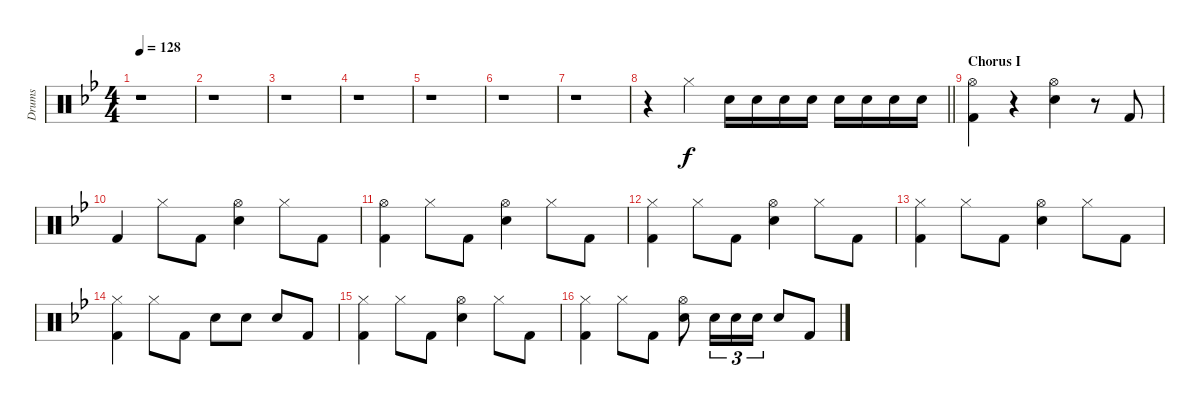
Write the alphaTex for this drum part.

\track ("Drums" "Drums") {instrument percussion}
\staff {score}
\articulation defaults
\ts (4 4)
\tempo 128
\clef neutral
\ks bb
r.1{dy f} |
r.1 |
r.1 |
r.1 |
r.1 |
r.1 |
r.1 |
\barLineRight lightlight
r.4 "Hi-Hat (closed)".4 "Electric Snare (hit)".16 "Electric Snare (hit)".16 "Electric Snare (hit)".16 "Electric Snare (hit)".16 "Electric Snare (hit)".16 "Electric Snare (hit)".16 "Electric Snare (hit)".16 "Electric Snare (hit)".16 |
\section ("" "Chorus I")
("Hi-Hat (open)" "Kick (hit) 2").4 r.4 ("Hi-Hat (open)" "Electric Snare (hit)").4 r.8 "Kick (hit) 2".8 |
"Kick (hit) 2".4 "Hi-Hat (closed)".8 "Kick (hit) 2".8 ("Hi-Hat (open)" "Electric Snare (hit)").4 "Hi-Hat (closed)".8 "Kick (hit) 2".8 |
("Hi-Hat (open)" "Kick (hit) 2").4 "Hi-Hat (closed)".8 "Kick (hit) 2".8 ("Hi-Hat (open)" "Electric Snare (hit)").4 "Hi-Hat (closed)".8 "Kick (hit) 2".8 |
("Hi-Hat (closed)" "Kick (hit) 2").4 "Hi-Hat (closed)".8 "Kick (hit) 2".8 ("Hi-Hat (open)" "Electric Snare (hit)").4 "Hi-Hat (closed)".8 "Kick (hit) 2".8 |
("Hi-Hat (closed)" "Kick (hit) 2").4 "Hi-Hat (closed)".8 "Kick (hit) 2".8 ("Hi-Hat (open)" "Electric Snare (hit)").4 "Hi-Hat (closed)".8 "Kick (hit) 2".8 |
("Hi-Hat (closed)" "Kick (hit) 2").4 "Hi-Hat (closed)".8 "Kick (hit) 2".8 "Electric Snare (hit)".8 "Electric Snare (hit)".8 "Electric Snare (hit)".8 "Kick (hit) 2".8 |
("Hi-Hat (closed)" "Kick (hit) 2").4 "Hi-Hat (closed)".8 "Kick (hit) 2".8 ("Hi-Hat (open)" "Electric Snare (hit)").4 "Hi-Hat (closed)".8 "Kick (hit) 2".8 |
("Hi-Hat (closed)" "Kick (hit) 2").4 "Hi-Hat (closed)".8 "Kick (hit) 2".8 ("Hi-Hat (open)" "Electric Snare (hit)").8 "Electric Snare (hit)".16{tu (3 2)} "Electric Snare (hit)".16{tu (3 2)} "Electric Snare (hit)".16{tu (3 2)} "Electric Snare (hit)".8 "Kick (hit) 2".8
